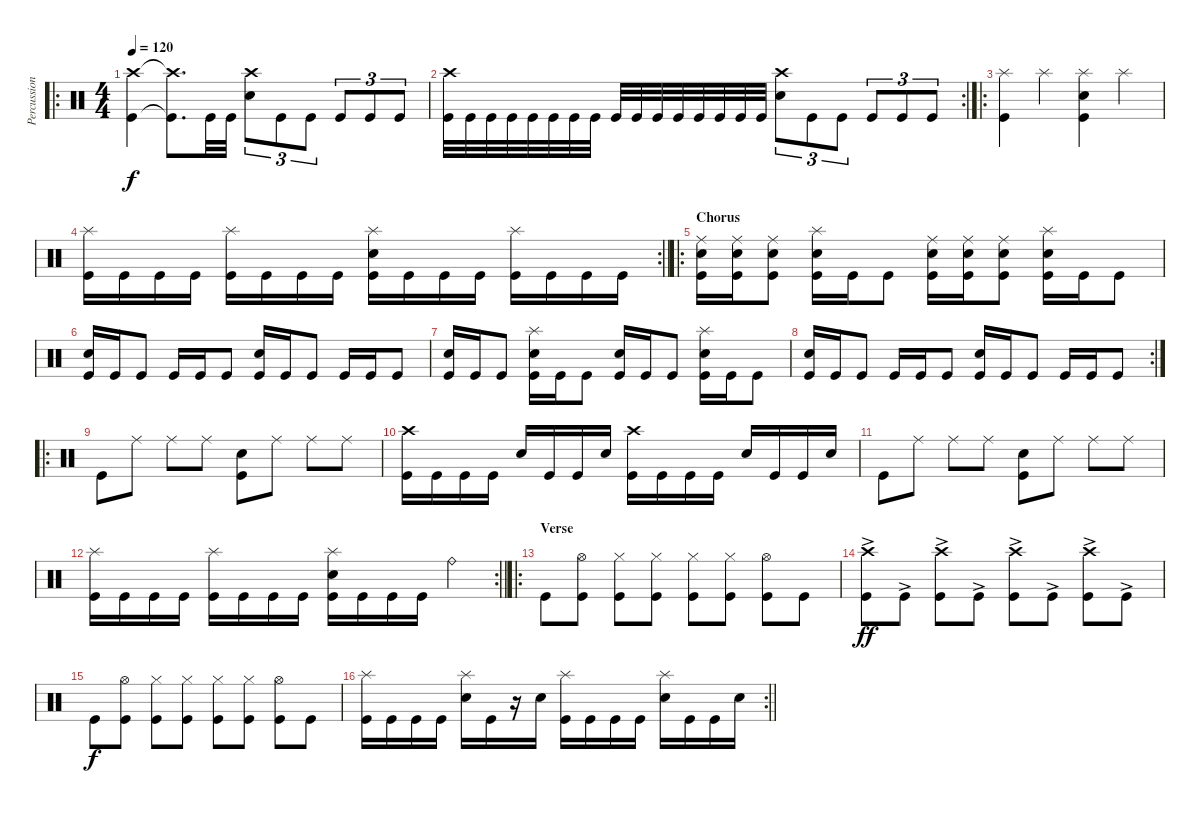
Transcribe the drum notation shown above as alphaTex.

\track ("Percussion" "Percussion") {instrument percussion}
\staff {score}
\articulation defaults
\ro
\ts (4 4)
\tempo 120
\clef neutral
\ks c
("Crash high (hit)" "Kick (hit)").4{dy f} ("Crash high (hit)"{t} "Kick (hit)"{t}).8{d} "Kick (hit)".32 "Kick (hit)".32 ("Crash high (hit)" "Electric Snare (hit)").8{tu (3 2)} "Kick (hit)".8{tu (3 2)} "Kick (hit)".8{tu (3 2)} "Kick (hit)".8{tu (3 2)} "Kick (hit)".8{tu (3 2)} "Kick (hit)".8{tu (3 2)} |
\rc 2
("Crash high (hit)" "Kick (hit)").32 "Kick (hit)".32 "Kick (hit)".32 "Kick (hit)".32 "Kick (hit)".32 "Kick (hit)".32 "Kick (hit)".32 "Kick (hit)".32 "Kick (hit)".32 "Kick (hit)".32 "Kick (hit)".32 "Kick (hit)".32 "Kick (hit)".32 "Kick (hit)".32 "Kick (hit)".32 "Kick (hit)".32 ("Crash high (hit)" "Electric Snare (hit)").8{tu (3 2)} "Kick (hit)".8{tu (3 2)} "Kick (hit)".8{tu (3 2)} "Kick (hit)".8{tu (3 2)} "Kick (hit)".8{tu (3 2)} "Kick (hit)".8{tu (3 2)} |
\ro
("Splash (hit)" "Kick (hit)").4 "Splash (hit)".4 ("Splash (hit)" "Electric Snare (hit)" "Kick (hit)").4 "Splash (hit)".4 |
\rc 2
\barLineRight lightlight
("Splash (hit)" "Kick (hit)").16 "Kick (hit)".16 "Kick (hit)".16 "Kick (hit)".16 ("Splash (hit)" "Kick (hit)").16 "Kick (hit)".16 "Kick (hit)".16 "Kick (hit)".16 ("Splash (hit)" "Electric Snare (hit)" "Kick (hit)").16 "Kick (hit)".16 "Kick (hit)".16 "Kick (hit)".16 ("Splash (hit)" "Kick (hit)").16 "Kick (hit)".16 "Kick (hit)".16 "Kick (hit)".16 |
\ro
\section ("" "Chorus")
("Ride (middle)" "Electric Snare (hit)" "Kick (hit)").16 ("Ride (middle)" "Electric Snare (hit)" "Kick (hit)").16 ("Ride (middle)" "Electric Snare (hit)" "Kick (hit)").8 ("Splash (hit)" "Electric Snare (hit)" "Kick (hit)").16 "Kick (hit)".16 "Kick (hit)".8 ("Ride (middle)" "Electric Snare (hit)" "Kick (hit)").16 ("Ride (middle)" "Electric Snare (hit)" "Kick (hit)").16 ("Ride (middle)" "Electric Snare (hit)" "Kick (hit)").8 ("Splash (hit)" "Electric Snare (hit)" "Kick (hit)").16 "Kick (hit)".16 "Kick (hit)".8 |
("Electric Snare (hit)" "Kick (hit)").16 "Kick (hit)".16 "Kick (hit)".8 "Kick (hit)".16 "Kick (hit)".16 "Kick (hit)".8 ("Electric Snare (hit)" "Kick (hit)").16 "Kick (hit)".16 "Kick (hit)".8 "Kick (hit)".16 "Kick (hit)".16 "Kick (hit)".8 |
("Electric Snare (hit)" "Kick (hit)").16 "Kick (hit)".16 "Kick (hit)".8 ("Splash (hit)" "Electric Snare (hit)" "Kick (hit)").16 "Kick (hit)".16 "Kick (hit)".8 ("Electric Snare (hit)" "Kick (hit)").16 "Kick (hit)".16 "Kick (hit)".8 ("Splash (hit)" "Electric Snare (hit)" "Kick (hit)").16 "Kick (hit)".16 "Kick (hit)".8 |
\rc 2
("Electric Snare (hit)" "Kick (hit)").16 "Kick (hit)".16 "Kick (hit)".8 "Kick (hit)".16 "Kick (hit)".16 "Kick (hit)".8 ("Electric Snare (hit)" "Kick (hit)").16 "Kick (hit)".16 "Kick (hit)".8 "Kick (hit)".16 "Kick (hit)".16 "Kick (hit)".8 |
\ro "Kick (hit)".8 "Ride (middle)".8 "Ride (middle)".8 "Ride (middle)".8
("Electric Snare (hit)" "Kick (hit)").8 "Ride (middle)".8 "Ride (middle)".8 "Ride (middle)".8 |
("Crash high (hit)" "Kick (hit)").16 "Kick (hit)".16 "Kick (hit)".16 "Kick (hit)".16 "Electric Snare (hit)".16 "Kick (hit)".16 "Kick (hit)".16 "Electric Snare (hit)".16 ("Crash high (hit)" "Kick (hit)").16 "Kick (hit)".16 "Kick (hit)".16 "Kick (hit)".16 "Electric Snare (hit)".16 "Kick (hit)".16 "Kick (hit)".16 "Electric Snare (hit)".16 |
"Kick (hit)".8 "Ride (middle)".8 "Ride (middle)".8 "Ride (middle)".8 ("Electric Snare (hit)" "Kick (hit)").8 "Ride (middle)".8 "Ride (middle)".8 "Ride (middle)".8 |
\rc 2
\barLineRight lightlight
("Splash (hit)" "Kick (hit)").16 "Kick (hit)".16 "Kick (hit)".16 "Kick (hit)".16 ("Splash (hit)" "Kick (hit)").16 "Kick (hit)".16 "Kick (hit)".16 "Kick (hit)".16 ("Splash (hit)" "Electric Snare (hit)" "Kick (hit)").16 "Kick (hit)".16 "Kick (hit)".16 "Kick (hit)".16 "Ride (bell)".4 |
\ro
\section ("" "Verse")
"Kick (hit)".8 ("Hi-Hat (open)" "Kick (hit)").8 ("Hi-Hat (closed)" "Kick (hit)").8 ("Hi-Hat (closed)" "Kick (hit)").8 ("Hi-Hat (closed)" "Kick (hit)").8 ("Hi-Hat (closed)" "Kick (hit)").8 ("Hi-Hat (open)" "Kick (hit)").8 "Kick (hit)".8 |
("Crash high (hit)" "Kick (hit)"{ac}).8{dy ff} "Kick (hit)"{ac}.8 ("Crash high (hit)" "Kick (hit)"{ac}).8 "Kick (hit)"{ac}.8 ("Crash high (hit)" "Kick (hit)"{ac}).8 "Kick (hit)"{ac}.8 ("Crash high (hit)" "Kick (hit)"{ac}).8 "Kick (hit)"{ac}.8 |
"Kick (hit)".8{dy f} ("Hi-Hat (open)" "Kick (hit)").8 ("Hi-Hat (closed)" "Kick (hit)").8 ("Hi-Hat (closed)" "Kick (hit)").8 ("Hi-Hat (closed)" "Kick (hit)").8 ("Hi-Hat (closed)" "Kick (hit)").8 ("Hi-Hat (open)" "Kick (hit)").8 "Kick (hit)".8 |
\rc 2
\barLineRight lightlight
("Splash (hit)" "Kick (hit)").16 "Kick (hit)".16 "Kick (hit)".16 "Kick (hit)".16 ("Splash (hit)" "Electric Snare (hit)").16 "Kick (hit)".16 r.16 "Electric Snare (hit)".16 ("Splash (hit)" "Kick (hit)").16 "Kick (hit)".16 "Kick (hit)".16 "Kick (hit)".16 ("Splash (hit)" "Electric Snare (hit)").16 "Kick (hit)".16 "Kick (hit)".16 "Electric Snare (hit)".16
